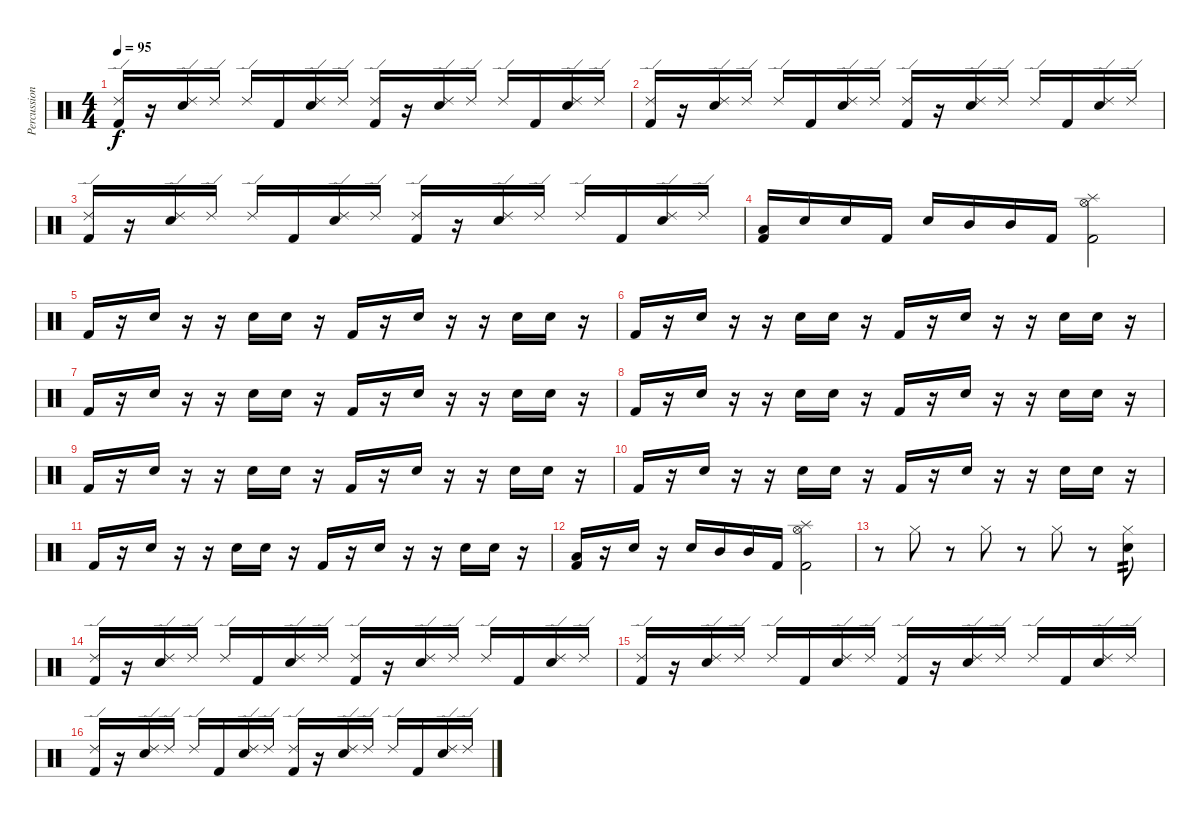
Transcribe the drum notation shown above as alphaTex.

\track ("Percussion" "Percussion") {instrument percussion}
\staff {score}
\articulation defaults
\ts (4 4)
\tempo 95
\clef neutral
\ks c
("Ride (edge) 2" "Kick (hit) 2").16{dy f} r.16 ("Ride (edge) 2" "Electric Snare (hit)").16 "Ride (edge) 2".16 "Ride (edge) 2".16 "Kick (hit) 2".16 ("Ride (edge) 2" "Electric Snare (hit)").16 "Ride (edge) 2".16 ("Ride (edge) 2" "Kick (hit) 2").16 r.16 ("Ride (edge) 2" "Electric Snare (hit)").16 "Ride (edge) 2".16 "Ride (edge) 2".16 "Kick (hit) 2".16 ("Ride (edge) 2" "Electric Snare (hit)").16 "Ride (edge) 2".16 |
("Ride (edge) 2" "Kick (hit) 2").16 r.16 ("Ride (edge) 2" "Electric Snare (hit)").16 "Ride (edge) 2".16 "Ride (edge) 2".16 "Kick (hit) 2".16 ("Ride (edge) 2" "Electric Snare (hit)").16 "Ride (edge) 2".16 ("Ride (edge) 2" "Kick (hit) 2").16 r.16 ("Ride (edge) 2" "Electric Snare (hit)").16 "Ride (edge) 2".16 "Ride (edge) 2".16 "Kick (hit) 2".16 ("Ride (edge) 2" "Electric Snare (hit)").16 "Ride (edge) 2".16 |
("Ride (edge) 2" "Kick (hit) 2").16 r.16 ("Ride (edge) 2" "Electric Snare (hit)").16 "Ride (edge) 2".16 "Ride (edge) 2".16 "Kick (hit) 2".16 ("Ride (edge) 2" "Electric Snare (hit)").16 "Ride (edge) 2".16 ("Ride (edge) 2" "Kick (hit) 2").16 r.16 ("Ride (edge) 2" "Electric Snare (hit)").16 "Ride (edge) 2".16 "Ride (edge) 2".16 "Kick (hit) 2".16 ("Ride (edge) 2" "Electric Snare (hit)").16 "Ride (edge) 2".16 |
("Low Tom (hit)" "Kick (hit) 2").16 "Electric Snare (hit)".16 "Electric Snare (hit)".16 "Kick (hit) 2".16 "Electric Snare (hit)".16 "Mid Tom (hit)".16 "Mid Tom (hit)".16 "Kick (hit) 2".16 ("Splash (hit)" "Hi-Hat (open)" "Kick (hit) 2").2 |
"Kick (hit) 2".16 r.16 "Electric Snare (hit)".16 r.16 r.16 "Electric Snare (hit)".16 "Electric Snare (hit)".16 r.16 "Kick (hit) 2".16 r.16 "Electric Snare (hit)".16 r.16 r.16 "Electric Snare (hit)".16 "Electric Snare (hit)".16 r.16 |
"Kick (hit) 2".16 r.16 "Electric Snare (hit)".16 r.16 r.16 "Electric Snare (hit)".16 "Electric Snare (hit)".16 r.16 "Kick (hit) 2".16 r.16 "Electric Snare (hit)".16 r.16 r.16 "Electric Snare (hit)".16 "Electric Snare (hit)".16 r.16 |
"Kick (hit) 2".16 r.16 "Electric Snare (hit)".16 r.16 r.16 "Electric Snare (hit)".16 "Electric Snare (hit)".16 r.16 "Kick (hit) 2".16 r.16 "Electric Snare (hit)".16 r.16 r.16 "Electric Snare (hit)".16 "Electric Snare (hit)".16 r.16 |
"Kick (hit) 2".16 r.16 "Electric Snare (hit)".16 r.16 r.16 "Electric Snare (hit)".16 "Electric Snare (hit)".16 r.16 "Kick (hit) 2".16 r.16 "Electric Snare (hit)".16 r.16 r.16 "Electric Snare (hit)".16 "Electric Snare (hit)".16 r.16 |
"Kick (hit) 2".16 r.16 "Electric Snare (hit)".16 r.16 r.16 "Electric Snare (hit)".16 "Electric Snare (hit)".16 r.16 "Kick (hit) 2".16 r.16 "Electric Snare (hit)".16 r.16 r.16 "Electric Snare (hit)".16 "Electric Snare (hit)".16 r.16 |
"Kick (hit) 2".16 r.16 "Electric Snare (hit)".16 r.16 r.16 "Electric Snare (hit)".16 "Electric Snare (hit)".16 r.16 "Kick (hit) 2".16 r.16 "Electric Snare (hit)".16 r.16 r.16 "Electric Snare (hit)".16 "Electric Snare (hit)".16 r.16 |
"Kick (hit) 2".16 r.16 "Electric Snare (hit)".16 r.16 r.16 "Electric Snare (hit)".16 "Electric Snare (hit)".16 r.16 "Kick (hit) 2".16 r.16 "Electric Snare (hit)".16 r.16 r.16 "Electric Snare (hit)".16 "Electric Snare (hit)".16 r.16 |
("Low Tom (hit)" "Kick (hit) 2").16 r.16 "Electric Snare (hit)".16 r.16 "Electric Snare (hit)".16 "Mid Tom (hit)".16 "Mid Tom (hit)".16 "Kick (hit) 2".16 ("Splash (hit)" "Hi-Hat (open)" "Kick (hit) 2").2 |
r.8 "Hi-Hat (closed)".8 r.8 "Hi-Hat (closed)".8 r.8 "Hi-Hat (closed)".8 r.8 ("Electric Snare (hit)" "Hi-Hat (closed)").8{tp 2} |
("Ride (edge) 2" "Kick (hit) 2").16 r.16 ("Ride (edge) 2" "Electric Snare (hit)").16 "Ride (edge) 2".16 "Ride (edge) 2".16 "Kick (hit) 2".16 ("Ride (edge) 2" "Electric Snare (hit)").16 "Ride (edge) 2".16 ("Ride (edge) 2" "Kick (hit) 2").16 r.16 ("Ride (edge) 2" "Electric Snare (hit)").16 "Ride (edge) 2".16 "Ride (edge) 2".16 "Kick (hit) 2".16 ("Ride (edge) 2" "Electric Snare (hit)").16 "Ride (edge) 2".16 |
("Ride (edge) 2" "Kick (hit) 2").16 r.16 ("Ride (edge) 2" "Electric Snare (hit)").16 "Ride (edge) 2".16 "Ride (edge) 2".16 "Kick (hit) 2".16 ("Ride (edge) 2" "Electric Snare (hit)").16 "Ride (edge) 2".16 ("Ride (edge) 2" "Kick (hit) 2").16 r.16 ("Ride (edge) 2" "Electric Snare (hit)").16 "Ride (edge) 2".16 "Ride (edge) 2".16 "Kick (hit) 2".16 ("Ride (edge) 2" "Electric Snare (hit)").16 "Ride (edge) 2".16 |
("Ride (edge) 2" "Kick (hit) 2").16 r.16 ("Ride (edge) 2" "Electric Snare (hit)").16 "Ride (edge) 2".16 "Ride (edge) 2".16 "Kick (hit) 2".16 ("Ride (edge) 2" "Electric Snare (hit)").16 "Ride (edge) 2".16 ("Ride (edge) 2" "Kick (hit) 2").16 r.16 ("Ride (edge) 2" "Electric Snare (hit)").16 "Ride (edge) 2".16 "Ride (edge) 2".16 "Kick (hit) 2".16 ("Ride (edge) 2" "Electric Snare (hit)").16 "Ride (edge) 2".16
